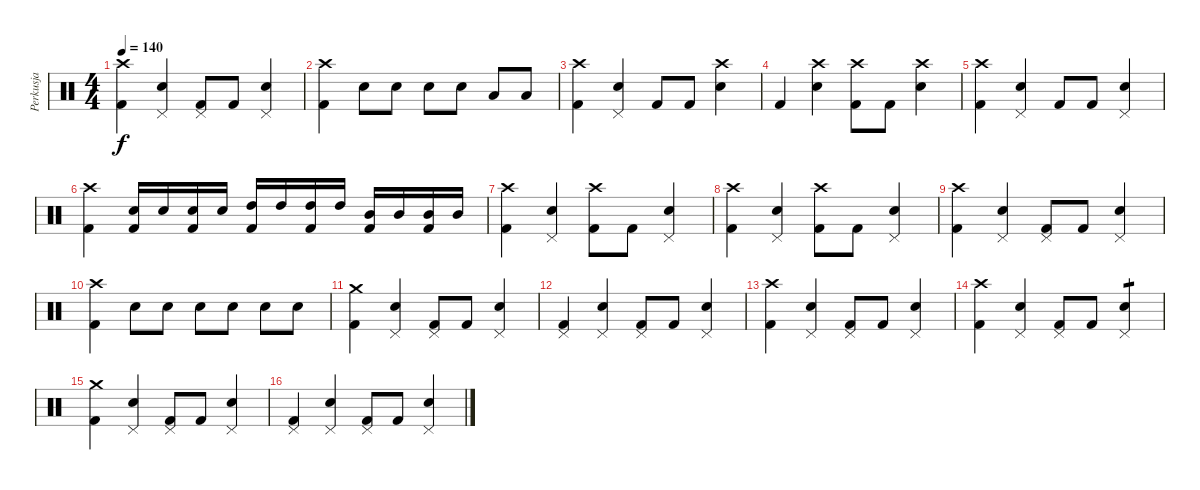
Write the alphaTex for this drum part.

\track ("Perkusja" "Perkusja") {instrument percussion}
\staff {score}
\articulation defaults
\ts (4 4)
\tempo 140
\clef neutral
\ks c
("Crash high (hit)" "Kick (hit) 2").4{dy f} ("Pedal Hi-Hat (hit)" "Snare (hit) 2").4 ("Pedal Hi-Hat (hit)" "Kick (hit) 2").8 "Kick (hit) 2".8 ("Pedal Hi-Hat (hit)" "Snare (hit) 2").4 |
("Crash high (hit)" "Kick (hit) 2").4 "Snare (hit) 2".8 "Snare (hit) 2".8 "Snare (hit) 2".8 "Snare (hit) 2".8 "Low Tom (hit)".8 "Low Tom (hit)".8 |
("Crash high (hit)" "Kick (hit) 2").4 ("Pedal Hi-Hat (hit)" "Snare (hit) 2").4 "Kick (hit) 2".8 "Kick (hit) 2".8 ("Crash high (hit)" "Snare (hit) 2").4 |
"Kick (hit) 2".4 ("Crash high (hit)" "Snare (hit) 2").4 ("Crash high (hit)" "Kick (hit) 2").8 "Kick (hit) 2".8 ("Crash high (hit)" "Snare (hit) 2").4 |
("Crash high (hit)" "Kick (hit) 2").4 ("Pedal Hi-Hat (hit)" "Snare (hit) 2").4 "Kick (hit) 2".8 "Kick (hit) 2".8 ("Pedal Hi-Hat (hit)" "Snare (hit) 2").4 |
("Crash high (hit)" "Kick (hit) 2").4 ("Kick (hit) 2" "Snare (hit) 2").16 "Snare (hit) 2".16 ("Kick (hit) 2" "Snare (hit) 2").16 "Snare (hit) 2".16 ("Kick (hit) 2" "High Tom (hit)").16 "High Tom (hit)".16 ("Kick (hit) 2" "High Tom (hit)").16 "High Tom (hit)".16 ("Kick (hit) 2" "Mid Tom (hit)").16 "Mid Tom (hit)".16 ("Kick (hit) 2" "Mid Tom (hit)").16 "Mid Tom (hit)".16 |
("Crash high (hit)" "Kick (hit) 2").4 ("Pedal Hi-Hat (hit)" "Snare (hit) 2").4 ("Crash high (hit)" "Kick (hit) 2").8 "Kick (hit) 2".8 ("Pedal Hi-Hat (hit)" "Snare (hit) 2").4 |
("Crash high (hit)" "Kick (hit) 2").4 ("Pedal Hi-Hat (hit)" "Snare (hit) 2").4 ("Crash high (hit)" "Kick (hit) 2").8 "Kick (hit) 2".8 ("Pedal Hi-Hat (hit)" "Snare (hit) 2").4 |
("Crash high (hit)" "Kick (hit) 2").4 ("Pedal Hi-Hat (hit)" "Snare (hit) 2").4 ("Pedal Hi-Hat (hit)" "Kick (hit) 2").8 "Kick (hit) 2".8 ("Pedal Hi-Hat (hit)" "Snare (hit) 2").4 |
("Crash high (hit)" "Kick (hit) 2").4 "Snare (hit) 2".8 "Snare (hit) 2".8 "Snare (hit) 2".8 "Snare (hit) 2".8 "Snare (hit) 2".8 "Snare (hit) 2".8 |
("Crash medium (hit)" "Kick (hit) 2").4 ("Pedal Hi-Hat (hit)" "Snare (hit) 2").4 ("Pedal Hi-Hat (hit)" "Kick (hit) 2").8 "Kick (hit) 2".8 ("Pedal Hi-Hat (hit)" "Snare (hit) 2").4 |
("Pedal Hi-Hat (hit)" "Kick (hit) 2").4 ("Pedal Hi-Hat (hit)" "Snare (hit) 2").4 ("Pedal Hi-Hat (hit)" "Kick (hit) 2").8 "Kick (hit) 2".8 ("Pedal Hi-Hat (hit)" "Snare (hit) 2").4 |
("Crash high (hit)" "Kick (hit) 2").4 ("Pedal Hi-Hat (hit)" "Snare (hit) 2").4 ("Pedal Hi-Hat (hit)" "Kick (hit) 2").8 "Kick (hit) 2".8 ("Pedal Hi-Hat (hit)" "Snare (hit) 2").4 |
("Crash high (hit)" "Kick (hit) 2").4 ("Pedal Hi-Hat (hit)" "Snare (hit) 2").4 ("Pedal Hi-Hat (hit)" "Kick (hit) 2").8 "Kick (hit) 2".8 ("Pedal Hi-Hat (hit)" "Snare (hit) 2").4{tp 1} |
("Crash medium (hit)" "Kick (hit) 2").4 ("Pedal Hi-Hat (hit)" "Snare (hit) 2").4 ("Pedal Hi-Hat (hit)" "Kick (hit) 2").8 "Kick (hit) 2".8 ("Pedal Hi-Hat (hit)" "Snare (hit) 2").4 |
("Pedal Hi-Hat (hit)" "Kick (hit) 2").4 ("Pedal Hi-Hat (hit)" "Snare (hit) 2").4 ("Pedal Hi-Hat (hit)" "Kick (hit) 2").8 "Kick (hit) 2".8 ("Pedal Hi-Hat (hit)" "Snare (hit) 2").4
